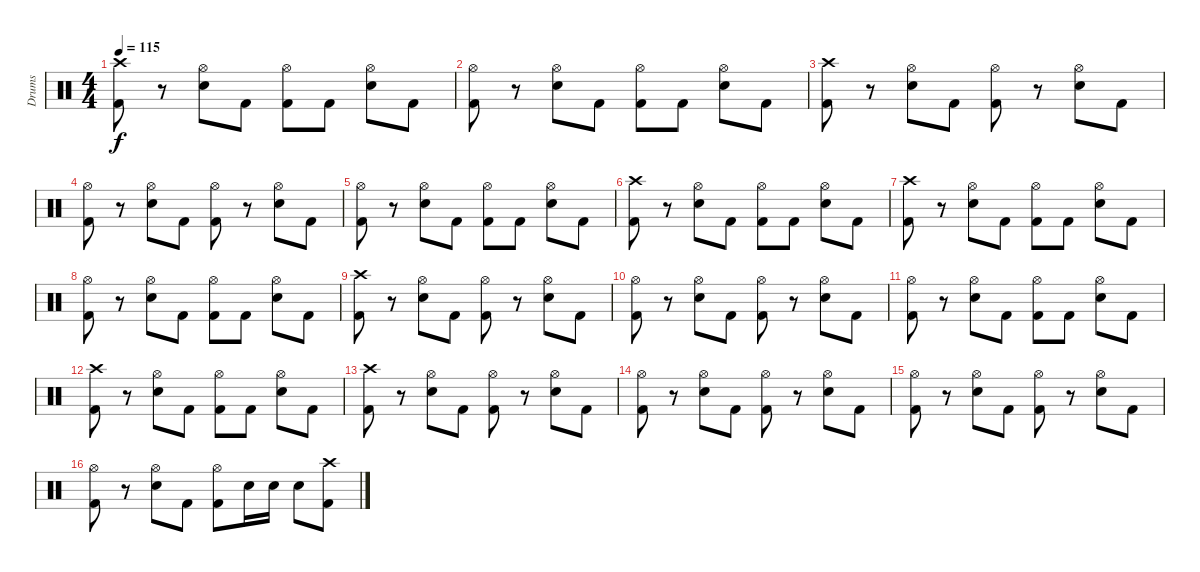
\track ("Drums" "Drums") {instrument percussion}
\staff {score}
\articulation defaults
\ts (4 4)
\tempo 115
\clef neutral
\ks c
("Crash high (hit)" "Kick (hit) 2").8{dy f} r.8 ("Hi-Hat (open)" "Snare (hit) 2").8 "Kick (hit) 2".8 ("Hi-Hat (open)" "Kick (hit) 2").8 "Kick (hit) 2".8 ("Hi-Hat (open)" "Snare (hit) 2").8 "Kick (hit) 2".8 |
("Hi-Hat (open)" "Kick (hit) 2").8 r.8 ("Hi-Hat (open)" "Snare (hit) 2").8 "Kick (hit) 2".8 ("Hi-Hat (open)" "Kick (hit) 2").8 "Kick (hit) 2".8 ("Hi-Hat (open)" "Snare (hit) 2").8 "Kick (hit) 2".8 |
("Crash high (hit)" "Kick (hit) 2").8 r.8 ("Hi-Hat (open)" "Snare (hit) 2").8 "Kick (hit) 2".8 ("Hi-Hat (open)" "Kick (hit) 2").8 r.8 ("Hi-Hat (open)" "Snare (hit) 2").8 "Kick (hit) 2".8 |
("Hi-Hat (open)" "Kick (hit) 2").8 r.8 ("Hi-Hat (open)" "Snare (hit) 2").8 "Kick (hit) 2".8 ("Hi-Hat (open)" "Kick (hit) 2").8 r.8 ("Hi-Hat (open)" "Snare (hit) 2").8 "Kick (hit) 2".8 |
("Hi-Hat (open)" "Kick (hit) 2").8 r.8 ("Hi-Hat (open)" "Snare (hit) 2").8 "Kick (hit) 2".8 ("Hi-Hat (open)" "Kick (hit) 2").8 "Kick (hit) 2".8 ("Hi-Hat (open)" "Snare (hit) 2").8 "Kick (hit) 2".8 |
("Crash high (hit)" "Kick (hit) 2").8 r.8 ("Hi-Hat (open)" "Snare (hit) 2").8 "Kick (hit) 2".8 ("Hi-Hat (open)" "Kick (hit) 2").8 "Kick (hit) 2".8 ("Hi-Hat (open)" "Snare (hit) 2").8 "Kick (hit) 2".8 |
("Crash high (hit)" "Kick (hit) 2").8 r.8 ("Hi-Hat (open)" "Snare (hit) 2").8 "Kick (hit) 2".8 ("Hi-Hat (open)" "Kick (hit) 2").8 "Kick (hit) 2".8 ("Hi-Hat (open)" "Snare (hit) 2").8 "Kick (hit) 2".8 |
("Hi-Hat (open)" "Kick (hit) 2").8 r.8 ("Hi-Hat (open)" "Snare (hit) 2").8 "Kick (hit) 2".8 ("Hi-Hat (open)" "Kick (hit) 2").8 "Kick (hit) 2".8 ("Hi-Hat (open)" "Snare (hit) 2").8 "Kick (hit) 2".8 |
("Crash high (hit)" "Kick (hit) 2").8 r.8 ("Hi-Hat (open)" "Snare (hit) 2").8 "Kick (hit) 2".8 ("Hi-Hat (open)" "Kick (hit) 2").8 r.8 ("Hi-Hat (open)" "Snare (hit) 2").8 "Kick (hit) 2".8 |
("Hi-Hat (open)" "Kick (hit) 2").8 r.8 ("Hi-Hat (open)" "Snare (hit) 2").8 "Kick (hit) 2".8 ("Hi-Hat (open)" "Kick (hit) 2").8 r.8 ("Hi-Hat (open)" "Snare (hit) 2").8 "Kick (hit) 2".8 |
("Hi-Hat (open)" "Kick (hit) 2").8 r.8 ("Hi-Hat (open)" "Snare (hit) 2").8 "Kick (hit) 2".8 ("Hi-Hat (open)" "Kick (hit) 2").8 "Kick (hit) 2".8 ("Hi-Hat (open)" "Snare (hit) 2").8 "Kick (hit) 2".8 |
("Crash high (hit)" "Kick (hit) 2").8 r.8 ("Hi-Hat (open)" "Snare (hit) 2").8 "Kick (hit) 2".8 ("Hi-Hat (open)" "Kick (hit) 2").8 "Kick (hit) 2".8 ("Hi-Hat (open)" "Snare (hit) 2").8 "Kick (hit) 2".8 |
("Crash high (hit)" "Kick (hit) 2").8 r.8 ("Hi-Hat (open)" "Snare (hit) 2").8 "Kick (hit) 2".8 ("Hi-Hat (open)" "Kick (hit) 2").8 r.8 ("Hi-Hat (open)" "Snare (hit) 2").8 "Kick (hit) 2".8 |
("Hi-Hat (open)" "Kick (hit) 2").8 r.8 ("Hi-Hat (open)" "Snare (hit) 2").8 "Kick (hit) 2".8 ("Hi-Hat (open)" "Kick (hit) 2").8 r.8 ("Hi-Hat (open)" "Snare (hit) 2").8 "Kick (hit) 2".8 |
("Hi-Hat (open)" "Kick (hit) 2").8 r.8 ("Hi-Hat (open)" "Snare (hit) 2").8 "Kick (hit) 2".8 ("Hi-Hat (open)" "Kick (hit) 2").8 r.8 ("Hi-Hat (open)" "Snare (hit) 2").8 "Kick (hit) 2".8 |
("Hi-Hat (open)" "Kick (hit) 2").8 r.8 ("Hi-Hat (open)" "Snare (hit) 2").8 "Kick (hit) 2".8 ("Hi-Hat (open)" "Kick (hit) 2").8 "Snare (hit) 2".16 "Snare (hit) 2".16 "Snare (hit) 2".8 ("Crash high (hit)" "Kick (hit) 2").8
